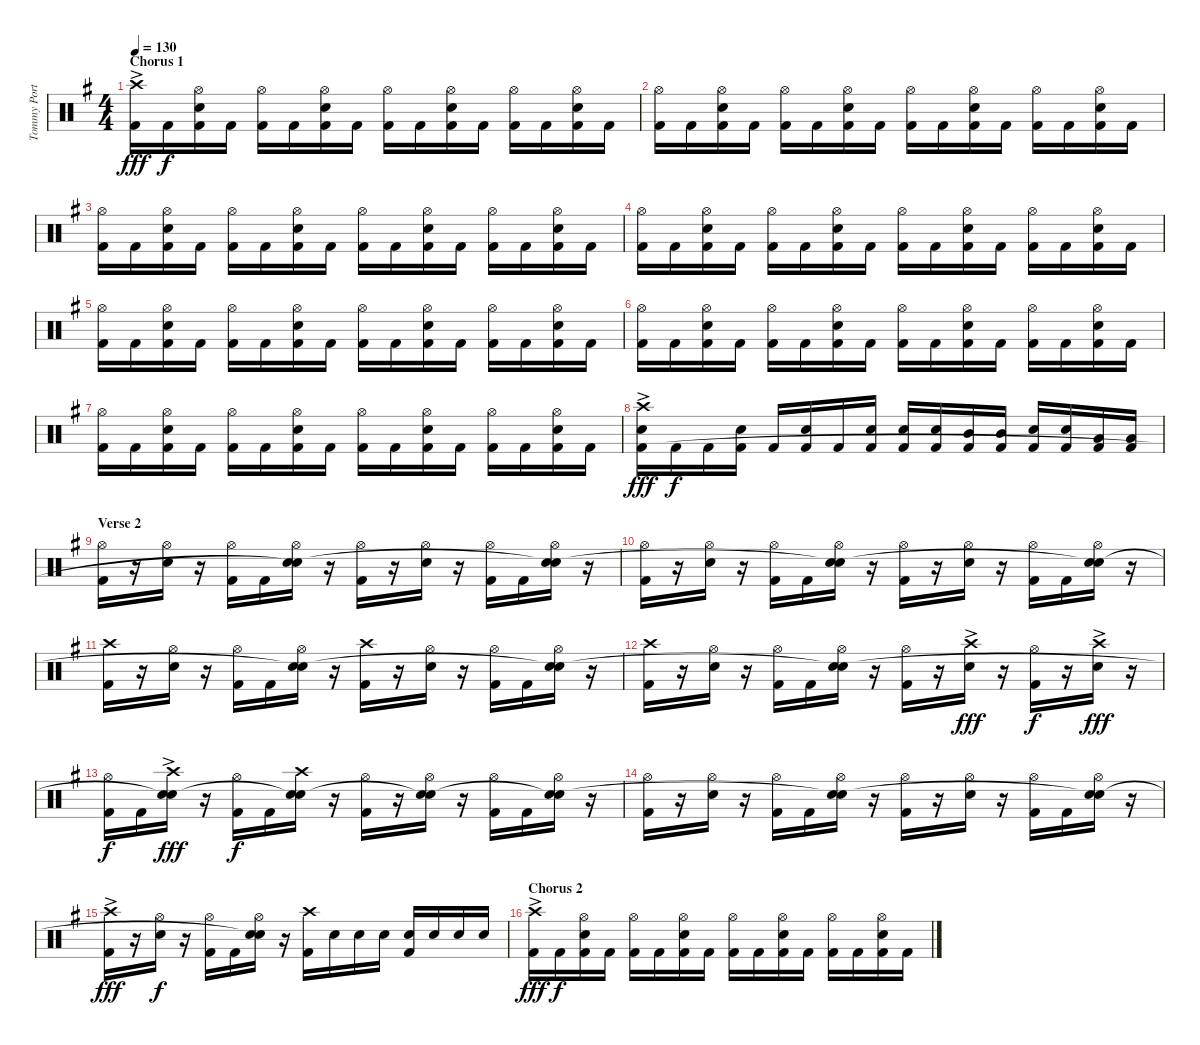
\track ("Tommy Portimo" "Tommy Port") {instrument percussion}
\staff {score}
\articulation defaults
\ts (4 4)
\section ("" "Chorus 1")
\tempo 130
\clef neutral
\ks eminor
("Crash high (hit)"{ac} "Kick (hit) 2").16{dy fff} "Kick (hit) 2".16{dy f} ("Hi-Hat (open)" "Electric Snare (hit)" "Kick (hit) 2").16 "Kick (hit) 2".16 ("Hi-Hat (open)" "Kick (hit) 2").16 "Kick (hit) 2".16 ("Hi-Hat (open)" "Electric Snare (hit)" "Kick (hit) 2").16 "Kick (hit) 2".16 ("Hi-Hat (open)" "Kick (hit) 2").16 "Kick (hit) 2".16 ("Hi-Hat (open)" "Electric Snare (hit)" "Kick (hit) 2").16 "Kick (hit) 2".16 ("Hi-Hat (open)" "Kick (hit) 2").16 "Kick (hit) 2".16 ("Hi-Hat (open)" "Electric Snare (hit)" "Kick (hit) 2").16 "Kick (hit) 2".16 |
("Hi-Hat (open)" "Kick (hit) 2").16 "Kick (hit) 2".16 ("Hi-Hat (open)" "Electric Snare (hit)" "Kick (hit) 2").16 "Kick (hit) 2".16 ("Hi-Hat (open)" "Kick (hit) 2").16 "Kick (hit) 2".16 ("Hi-Hat (open)" "Electric Snare (hit)" "Kick (hit) 2").16 "Kick (hit) 2".16 ("Hi-Hat (open)" "Kick (hit) 2").16 "Kick (hit) 2".16 ("Hi-Hat (open)" "Electric Snare (hit)" "Kick (hit) 2").16 "Kick (hit) 2".16 ("Hi-Hat (open)" "Kick (hit) 2").16 "Kick (hit) 2".16 ("Hi-Hat (open)" "Electric Snare (hit)" "Kick (hit) 2").16 "Kick (hit) 2".16 |
("Hi-Hat (open)" "Kick (hit) 2").16 "Kick (hit) 2".16 ("Hi-Hat (open)" "Electric Snare (hit)" "Kick (hit) 2").16 "Kick (hit) 2".16 ("Hi-Hat (open)" "Kick (hit) 2").16 "Kick (hit) 2".16 ("Hi-Hat (open)" "Electric Snare (hit)" "Kick (hit) 2").16 "Kick (hit) 2".16 ("Hi-Hat (open)" "Kick (hit) 2").16 "Kick (hit) 2".16 ("Hi-Hat (open)" "Electric Snare (hit)" "Kick (hit) 2").16 "Kick (hit) 2".16 ("Hi-Hat (open)" "Kick (hit) 2").16 "Kick (hit) 2".16 ("Hi-Hat (open)" "Electric Snare (hit)" "Kick (hit) 2").16 "Kick (hit) 2".16 |
("Hi-Hat (open)" "Kick (hit) 2").16 "Kick (hit) 2".16 ("Hi-Hat (open)" "Electric Snare (hit)" "Kick (hit) 2").16 "Kick (hit) 2".16 ("Hi-Hat (open)" "Kick (hit) 2").16 "Kick (hit) 2".16 ("Hi-Hat (open)" "Electric Snare (hit)" "Kick (hit) 2").16 "Kick (hit) 2".16 ("Hi-Hat (open)" "Kick (hit) 2").16 "Kick (hit) 2".16 ("Hi-Hat (open)" "Electric Snare (hit)" "Kick (hit) 2").16 "Kick (hit) 2".16 ("Hi-Hat (open)" "Kick (hit) 2").16 "Kick (hit) 2".16 ("Hi-Hat (open)" "Electric Snare (hit)" "Kick (hit) 2").16 "Kick (hit) 2".16 |
("Hi-Hat (open)" "Kick (hit) 2").16 "Kick (hit) 2".16 ("Hi-Hat (open)" "Electric Snare (hit)" "Kick (hit) 2").16 "Kick (hit) 2".16 ("Hi-Hat (open)" "Kick (hit) 2").16 "Kick (hit) 2".16 ("Hi-Hat (open)" "Electric Snare (hit)" "Kick (hit) 2").16 "Kick (hit) 2".16 ("Hi-Hat (open)" "Kick (hit) 2").16 "Kick (hit) 2".16 ("Hi-Hat (open)" "Electric Snare (hit)" "Kick (hit) 2").16 "Kick (hit) 2".16 ("Hi-Hat (open)" "Kick (hit) 2").16 "Kick (hit) 2".16 ("Hi-Hat (open)" "Electric Snare (hit)" "Kick (hit) 2").16 "Kick (hit) 2".16 |
("Hi-Hat (open)" "Kick (hit) 2").16 "Kick (hit) 2".16 ("Hi-Hat (open)" "Electric Snare (hit)" "Kick (hit) 2").16 "Kick (hit) 2".16 ("Hi-Hat (open)" "Kick (hit) 2").16 "Kick (hit) 2".16 ("Hi-Hat (open)" "Electric Snare (hit)" "Kick (hit) 2").16 "Kick (hit) 2".16 ("Hi-Hat (open)" "Kick (hit) 2").16 "Kick (hit) 2".16 ("Hi-Hat (open)" "Electric Snare (hit)" "Kick (hit) 2").16 "Kick (hit) 2".16 ("Hi-Hat (open)" "Kick (hit) 2").16 "Kick (hit) 2".16 ("Hi-Hat (open)" "Electric Snare (hit)" "Kick (hit) 2").16 "Kick (hit) 2".16 |
("Hi-Hat (open)" "Kick (hit) 2").16 "Kick (hit) 2".16 ("Hi-Hat (open)" "Electric Snare (hit)" "Kick (hit) 2").16 "Kick (hit) 2".16 ("Hi-Hat (open)" "Kick (hit) 2").16 "Kick (hit) 2".16 ("Hi-Hat (open)" "Electric Snare (hit)" "Kick (hit) 2").16 "Kick (hit) 2".16 ("Hi-Hat (open)" "Kick (hit) 2").16 "Kick (hit) 2".16 ("Hi-Hat (open)" "Electric Snare (hit)" "Kick (hit) 2").16 "Kick (hit) 2".16 ("Hi-Hat (open)" "Kick (hit) 2").16 "Kick (hit) 2".16 ("Hi-Hat (open)" "Electric Snare (hit)" "Kick (hit) 2").16 "Kick (hit) 2".16 |
("Crash high (hit)"{ac} "Electric Snare (hit)" "Kick (hit) 2").16{dy fff} "Kick (hit) 2".16{dy f} "Kick (hit) 2".16 ("Electric Snare (hit)" "Kick (hit) 2").16 "Kick (hit) 2".16 ("Electric Snare (hit)" "Kick (hit) 2").16 "Kick (hit) 2".16 ("Electric Snare (hit)" "Kick (hit) 2").16 ("Electric Snare (hit)" "Kick (hit) 2").16 ("Electric Snare (hit)" "Kick (hit) 2").16 ("Mid Tom (hit)" "Kick (hit) 2").16 ("Mid Tom (hit)" "Kick (hit) 2").16 ("Electric Snare (hit)" "Kick (hit) 2").16 ("Electric Snare (hit)" "Kick (hit) 2").16 ("Low Tom (hit)" "Kick (hit) 2").16 ("Low Tom (hit)" "Kick (hit) 2").16 |
\section ("" "Verse 2")
("Hi-Hat (open)" "Kick (hit) 2").16 r.16 ("Hi-Hat (open)" "Electric Snare (hit)").16 r.16 ("Hi-Hat (open)" "Kick (hit) 2").16 "Kick (hit) 2".16 ("Hi-Hat (open)" "Electric Snare (hit)" "Snare (hit)"{t}).16 r.16 ("Hi-Hat (open)" "Kick (hit) 2").16 r.16 ("Hi-Hat (open)" "Electric Snare (hit)").16 r.16 ("Hi-Hat (open)" "Kick (hit) 2").16 "Kick (hit) 2".16 ("Hi-Hat (open)" "Electric Snare (hit)" "Snare (hit)"{t}).16 r.16 |
("Hi-Hat (open)" "Kick (hit) 2").16 r.16 ("Hi-Hat (open)" "Electric Snare (hit)").16 r.16 ("Hi-Hat (open)" "Kick (hit) 2").16 "Kick (hit) 2".16 ("Hi-Hat (open)" "Electric Snare (hit)" "Snare (hit)"{t}).16 r.16 ("Hi-Hat (open)" "Kick (hit) 2").16 r.16 ("Hi-Hat (open)" "Electric Snare (hit)").16 r.16 ("Hi-Hat (open)" "Kick (hit) 2").16 "Kick (hit) 2".16 ("Hi-Hat (open)" "Electric Snare (hit)" "Snare (hit)"{t}).16 r.16 |
("Crash high (hit)" "Kick (hit) 2").16 r.16 ("Hi-Hat (open)" "Electric Snare (hit)").16 r.16 ("Hi-Hat (open)" "Kick (hit) 2").16 "Kick (hit) 2".16 ("Hi-Hat (open)" "Electric Snare (hit)" "Snare (hit)"{t}).16 r.16 ("Crash high (hit)" "Kick (hit) 2").16 r.16 ("Hi-Hat (open)" "Electric Snare (hit)").16 r.16 ("Hi-Hat (open)" "Kick (hit) 2").16 "Kick (hit) 2".16 ("Hi-Hat (open)" "Electric Snare (hit)" "Snare (hit)"{t}).16 r.16 |
("Crash high (hit)" "Kick (hit) 2").16 r.16 ("Hi-Hat (open)" "Electric Snare (hit)").16 r.16 ("Hi-Hat (open)" "Kick (hit) 2").16 "Kick (hit) 2".16 ("Hi-Hat (open)" "Electric Snare (hit)" "Snare (hit)"{t}).16 r.16 ("Hi-Hat (open)" "Kick (hit) 2").16 r.16 ("Crash high (hit)"{ac} "Electric Snare (hit)").16{dy fff} r.16 ("Hi-Hat (open)" "Kick (hit) 2").16{dy f} r.16 ("Crash high (hit)"{ac} "Electric Snare (hit)").16{dy fff} r.16 |
("Hi-Hat (open)" "Kick (hit) 2").16{dy f} "Kick (hit) 2".16 ("Crash high (hit)" "Electric Snare (hit)"{ac} "Snare (hit)"{t}).16{dy fff} r.16 ("Hi-Hat (open)" "Kick (hit) 2").16{dy f} "Kick (hit) 2".16 ("Crash high (hit)" "Electric Snare (hit)" "Snare (hit)"{t}).16 r.16 ("Hi-Hat (open)" "Kick (hit) 2").16 r.16 ("Hi-Hat (open)" "Electric Snare (hit)" "Snare (hit)"{t}).16 r.16 ("Hi-Hat (open)" "Kick (hit) 2").16 "Kick (hit) 2".16 ("Hi-Hat (open)" "Electric Snare (hit)" "Snare (hit)"{t}).16 r.16 |
("Hi-Hat (open)" "Kick (hit) 2").16 r.16 ("Hi-Hat (open)" "Electric Snare (hit)").16 r.16 ("Hi-Hat (open)" "Kick (hit) 2").16 "Kick (hit) 2".16 ("Hi-Hat (open)" "Electric Snare (hit)" "Snare (hit)"{t}).16 r.16 ("Hi-Hat (open)" "Kick (hit) 2").16 r.16 ("Hi-Hat (open)" "Electric Snare (hit)").16 r.16 ("Hi-Hat (open)" "Kick (hit) 2").16 "Kick (hit) 2".16 ("Hi-Hat (open)" "Electric Snare (hit)" "Snare (hit)"{t}).16 r.16 |
("Crash high (hit)"{ac} "Kick (hit) 2").16{dy fff} r.16 ("Hi-Hat (open)" "Electric Snare (hit)").16{dy f} r.16 ("Hi-Hat (open)" "Kick (hit) 2").16 "Kick (hit) 2".16 ("Hi-Hat (open)" "Electric Snare (hit)" "Snare (hit)"{t}).16 r.16 ("Crash high (hit)" "Kick (hit) 2").16 "Electric Snare (hit)".16 "Electric Snare (hit)".16 "Electric Snare (hit)".16 ("Electric Snare (hit)" "Kick (hit) 2").16 "Electric Snare (hit)".16 "Electric Snare (hit)".16 "Electric Snare (hit)".16 |
\section ("" "Chorus 2")
("Crash high (hit)"{ac} "Kick (hit) 2").16{dy fff} "Kick (hit) 2".16{dy f} ("Hi-Hat (open)" "Electric Snare (hit)" "Kick (hit) 2").16 "Kick (hit) 2".16 ("Hi-Hat (open)" "Kick (hit) 2").16 "Kick (hit) 2".16 ("Hi-Hat (open)" "Electric Snare (hit)" "Kick (hit) 2").16 "Kick (hit) 2".16 ("Hi-Hat (open)" "Kick (hit) 2").16 "Kick (hit) 2".16 ("Hi-Hat (open)" "Electric Snare (hit)" "Kick (hit) 2").16 "Kick (hit) 2".16 ("Hi-Hat (open)" "Kick (hit) 2").16 "Kick (hit) 2".16 ("Hi-Hat (open)" "Electric Snare (hit)" "Kick (hit) 2").16 "Kick (hit) 2".16
